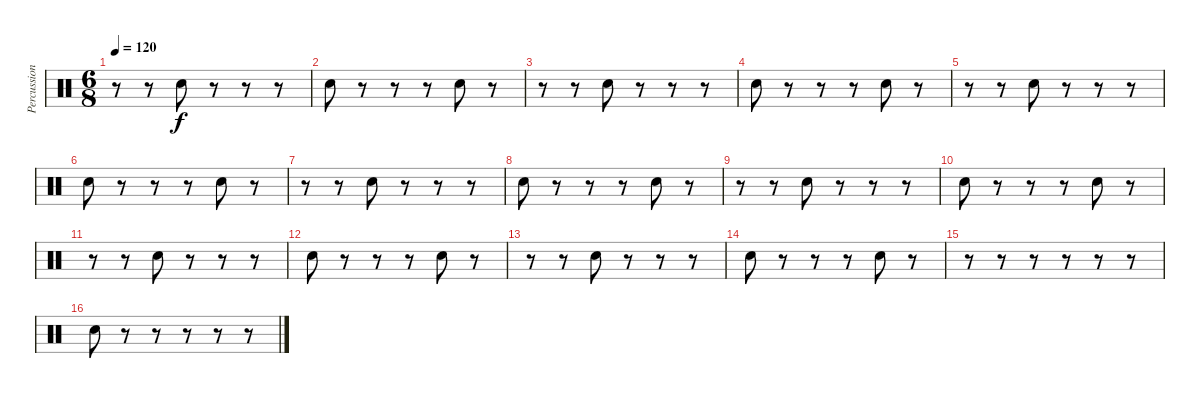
\track ("Percussion" "Percussion") {instrument percussion}
\staff {score}
\articulation defaults
\ts (6 8)
\tempo 120
\clef neutral
\ks c
r.8{dy f} r.8 "Snare (hit) 2".8 r.8 r.8 r.8 |
"Snare (hit) 2".8 r.8 r.8 r.8 "Snare (hit) 2".8 r.8 |
r.8 r.8 "Snare (hit) 2".8 r.8 r.8 r.8 |
"Snare (hit) 2".8 r.8 r.8 r.8 "Snare (hit) 2".8 r.8 |
r.8 r.8 "Snare (hit) 2".8 r.8 r.8 r.8 |
"Snare (hit) 2".8 r.8 r.8 r.8 "Snare (hit) 2".8 r.8 |
r.8 r.8 "Snare (hit) 2".8 r.8 r.8 r.8 |
"Snare (hit) 2".8 r.8 r.8 r.8 "Snare (hit) 2".8 r.8 |
r.8 r.8 "Snare (hit) 2".8 r.8 r.8 r.8 |
"Snare (hit) 2".8 r.8 r.8 r.8 "Snare (hit) 2".8 r.8 |
r.8 r.8 "Snare (hit) 2".8 r.8 r.8 r.8 |
"Snare (hit) 2".8 r.8 r.8 r.8 "Snare (hit) 2".8 r.8 |
r.8 r.8 "Snare (hit) 2".8 r.8 r.8 r.8 |
"Snare (hit) 2".8 r.8 r.8 r.8 "Snare (hit) 2".8 r.8 |
r.8 r.8 r.8 r.8 r.8 r.8 |
"Snare (hit) 2".8 r.8 r.8 r.8 r.8 r.8
